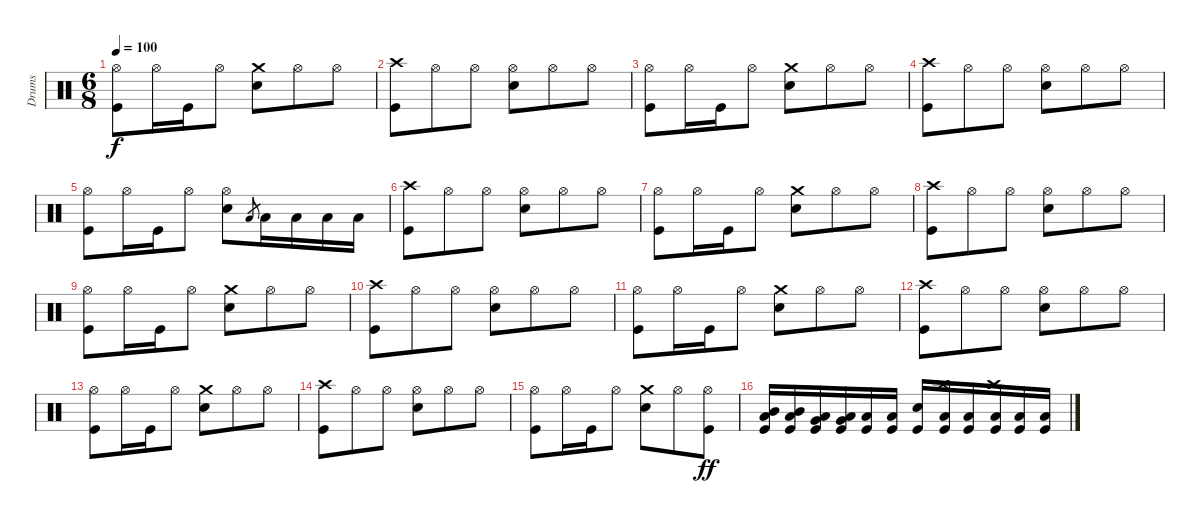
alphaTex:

\track ("Drums" "Drums") {instrument percussion}
\staff {score}
\articulation defaults
\ts (6 8)
\tempo 100
\clef neutral
\ks c
("Hi-Hat (open)" "Kick (hit)").8{dy f} "Hi-Hat (open)".16 "Kick (hit)".16 "Hi-Hat (open)".8 ("Crash medium (hit)" "Electric Snare (hit)").8 "Hi-Hat (open)".8 "Hi-Hat (open)".8 |
("Crash high (hit)" "Kick (hit)").8 "Hi-Hat (open)".8 "Hi-Hat (open)".8 ("Hi-Hat (open)" "Electric Snare (hit)").8 "Hi-Hat (open)".8 "Hi-Hat (open)".8 |
("Hi-Hat (open)" "Kick (hit)").8 "Hi-Hat (open)".16 "Kick (hit)".16 "Hi-Hat (open)".8 ("Crash medium (hit)" "Electric Snare (hit)").8 "Hi-Hat (open)".8 "Hi-Hat (open)".8 |
("Crash high (hit)" "Kick (hit)").8 "Hi-Hat (open)".8 "Hi-Hat (open)".8 ("Hi-Hat (open)" "Electric Snare (hit)").8 "Hi-Hat (open)".8 "Hi-Hat (open)".8 |
("Hi-Hat (open)" "Kick (hit)").8 "Hi-Hat (open)".16 "Kick (hit)".16 "Hi-Hat (open)".8 ("Hi-Hat (open)" "Electric Snare (hit)").8 "Low Tom (hit)".8{gr} "Low Tom (hit)".16 "Low Tom (hit)".16 "Low Tom (hit)".16 "Low Tom (hit)".16 |
("Crash high (hit)" "Kick (hit)").8 "Hi-Hat (open)".8 "Hi-Hat (open)".8 ("Hi-Hat (open)" "Electric Snare (hit)").8 "Hi-Hat (open)".8 "Hi-Hat (open)".8 |
("Hi-Hat (open)" "Kick (hit)").8 "Hi-Hat (open)".16 "Kick (hit)".16 "Hi-Hat (open)".8 ("Crash medium (hit)" "Electric Snare (hit)").8 "Hi-Hat (open)".8 "Hi-Hat (open)".8 |
("Crash high (hit)" "Kick (hit)").8 "Hi-Hat (open)".8 "Hi-Hat (open)".8 ("Hi-Hat (open)" "Electric Snare (hit)").8 "Hi-Hat (open)".8 "Hi-Hat (open)".8 |
("Hi-Hat (open)" "Kick (hit)").8 "Hi-Hat (open)".16 "Kick (hit)".16 "Hi-Hat (open)".8 ("Crash medium (hit)" "Electric Snare (hit)").8 "Hi-Hat (open)".8 "Hi-Hat (open)".8 |
("Crash high (hit)" "Kick (hit)").8 "Hi-Hat (open)".8 "Hi-Hat (open)".8 ("Hi-Hat (open)" "Electric Snare (hit)").8 "Hi-Hat (open)".8 "Hi-Hat (open)".8 |
("Hi-Hat (open)" "Kick (hit)").8 "Hi-Hat (open)".16 "Kick (hit)".16 "Hi-Hat (open)".8 ("Crash medium (hit)" "Electric Snare (hit)").8 "Hi-Hat (open)".8 "Hi-Hat (open)".8 |
("Crash high (hit)" "Kick (hit)").8 "Hi-Hat (open)".8 "Hi-Hat (open)".8 ("Hi-Hat (open)" "Electric Snare (hit)").8 "Hi-Hat (open)".8 "Hi-Hat (open)".8 |
("Hi-Hat (open)" "Kick (hit)").8 "Hi-Hat (open)".16 "Kick (hit)".16 "Hi-Hat (open)".8 ("Crash medium (hit)" "Electric Snare (hit)").8 "Hi-Hat (open)".8 "Hi-Hat (open)".8 |
("Crash high (hit)" "Kick (hit)").8 "Hi-Hat (open)".8 "Hi-Hat (open)".8 ("Hi-Hat (open)" "Electric Snare (hit)").8 "Hi-Hat (open)".8 "Hi-Hat (open)".8 |
("Hi-Hat (open)" "Kick (hit)").8 "Hi-Hat (open)".16 "Kick (hit)".16 "Hi-Hat (open)".8 ("Crash medium (hit)" "Electric Snare (hit)").8 "Hi-Hat (open)".8 ("Hi-Hat (open)" "Kick (hit)").8{dy ff} |
("Mid Tom (hit)" "Low Tom (hit)" "Kick (hit)").16{volume 12} ("Mid Tom (hit)" "Low Tom (hit)" "Kick (hit)").16 ("Low Tom (hit)" "Very Low Tom (hit)" "Kick (hit)").16 ("Low Tom (hit)" "Very Low Tom (hit)" "Kick (hit)").16 ("Low Floor Tom (hit)" "Kick (hit)").16 ("Low Floor Tom (hit)" "Kick (hit)").16 ("Electric Snare (hit)" "Kick (hit)").16 ("Crash high (hit)" "Low Tom (hit)" "Kick (hit)").16 ("Low Tom (hit)" "Kick (hit)").16 ("Crash high (hit)" "Low Tom (hit)" "Kick (hit)").16 ("Low Tom (hit)" "Kick (hit)").16 ("Low Tom (hit)" "Kick (hit)").16
